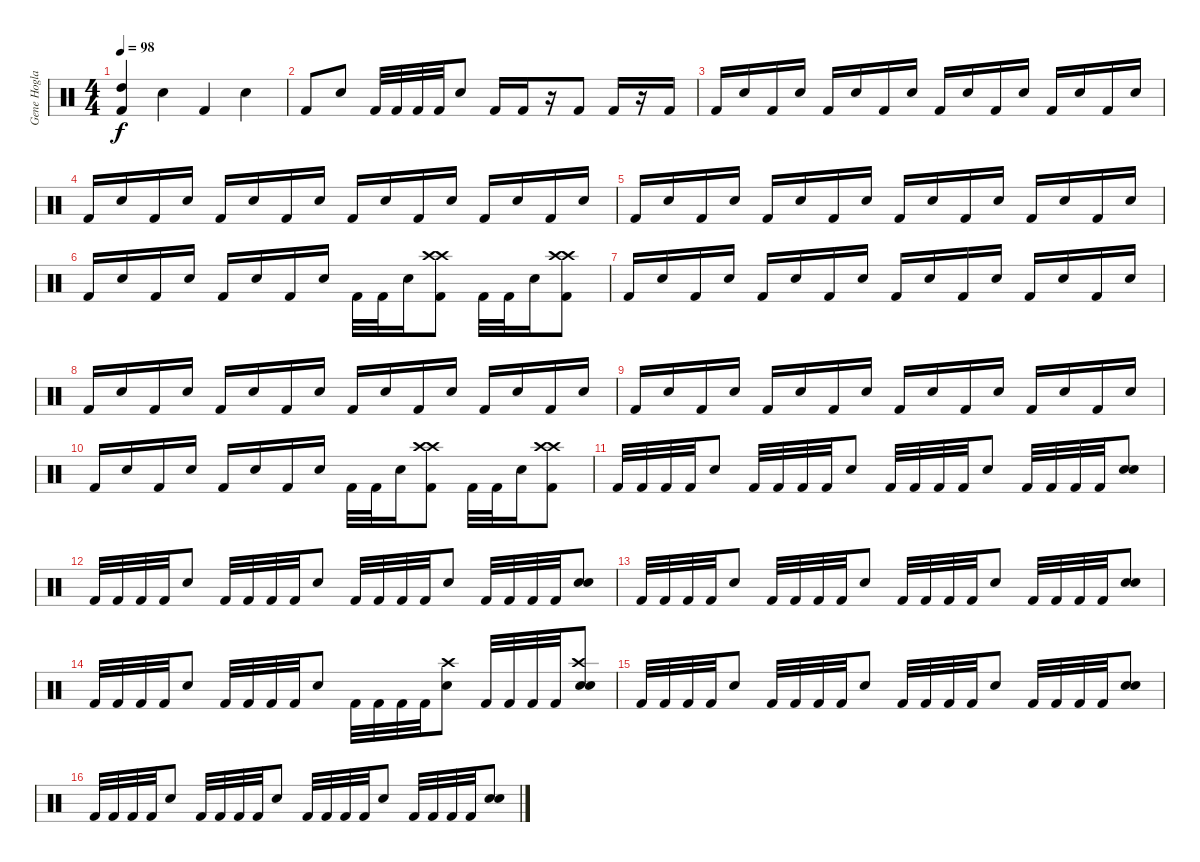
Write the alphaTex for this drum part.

\track ("Gene Hoglan" "Gene Hogla") {instrument percussion}
\staff {score}
\articulation defaults
\ts (4 4)
\tempo 98
\clef neutral
\ks c
("High Tom (hit)" "Kick (hit) 2").4{dy f} "Electric Snare (hit)".4 "Kick (hit) 2".4 "Electric Snare (hit)".4 |
"Kick (hit) 2".8 "Electric Snare (hit)".8 "Kick (hit) 2".32 "Kick (hit) 2".32 "Kick (hit) 2".32 "Kick (hit) 2".32 "Electric Snare (hit)".8 "Kick (hit) 2".16 "Kick (hit) 2".16 r.16 "Kick (hit) 2".8 "Kick (hit) 2".16 r.16 "Kick (hit) 2".16 |
"Kick (hit) 2".16 "Electric Snare (hit)".16 "Kick (hit) 2".16 "Electric Snare (hit)".16 "Kick (hit) 2".16 "Electric Snare (hit)".16 "Kick (hit) 2".16 "Electric Snare (hit)".16 "Kick (hit) 2".16 "Electric Snare (hit)".16 "Kick (hit) 2".16 "Electric Snare (hit)".16 "Kick (hit) 2".16 "Electric Snare (hit)".16 "Kick (hit) 2".16 "Electric Snare (hit)".16 |
"Kick (hit) 2".16 "Electric Snare (hit)".16 "Kick (hit) 2".16 "Electric Snare (hit)".16 "Kick (hit) 2".16 "Electric Snare (hit)".16 "Kick (hit) 2".16 "Electric Snare (hit)".16 "Kick (hit) 2".16 "Electric Snare (hit)".16 "Kick (hit) 2".16 "Electric Snare (hit)".16 "Kick (hit) 2".16 "Electric Snare (hit)".16 "Kick (hit) 2".16 "Electric Snare (hit)".16 |
"Kick (hit) 2".16 "Electric Snare (hit)".16 "Kick (hit) 2".16 "Electric Snare (hit)".16 "Kick (hit) 2".16 "Electric Snare (hit)".16 "Kick (hit) 2".16 "Electric Snare (hit)".16 "Kick (hit) 2".16 "Electric Snare (hit)".16 "Kick (hit) 2".16 "Electric Snare (hit)".16 "Kick (hit) 2".16 "Electric Snare (hit)".16 "Kick (hit) 2".16 "Electric Snare (hit)".16 |
"Kick (hit) 2".16 "Electric Snare (hit)".16 "Kick (hit) 2".16 "Electric Snare (hit)".16 "Kick (hit) 2".16 "Electric Snare (hit)".16 "Kick (hit) 2".16 "Electric Snare (hit)".16 "Kick (hit) 2".32 "Kick (hit) 2".32 "Electric Snare (hit)".16 ("Kick (hit) 2" "Crash high (hit)" "Crash high (hit)").8 "Kick (hit) 2".32 "Kick (hit) 2".32 "Electric Snare (hit)".16 ("Kick (hit) 2" "Crash high (hit)" "Crash high (hit)").8 |
"Kick (hit) 2".16 "Electric Snare (hit)".16 "Kick (hit) 2".16 "Electric Snare (hit)".16 "Kick (hit) 2".16 "Electric Snare (hit)".16 "Kick (hit) 2".16 "Electric Snare (hit)".16 "Kick (hit) 2".16 "Electric Snare (hit)".16 "Kick (hit) 2".16 "Electric Snare (hit)".16 "Kick (hit) 2".16 "Electric Snare (hit)".16 "Kick (hit) 2".16 "Electric Snare (hit)".16 |
"Kick (hit) 2".16 "Electric Snare (hit)".16 "Kick (hit) 2".16 "Electric Snare (hit)".16 "Kick (hit) 2".16 "Electric Snare (hit)".16 "Kick (hit) 2".16 "Electric Snare (hit)".16 "Kick (hit) 2".16 "Electric Snare (hit)".16 "Kick (hit) 2".16 "Electric Snare (hit)".16 "Kick (hit) 2".16 "Electric Snare (hit)".16 "Kick (hit) 2".16 "Electric Snare (hit)".16 |
"Kick (hit) 2".16 "Electric Snare (hit)".16 "Kick (hit) 2".16 "Electric Snare (hit)".16 "Kick (hit) 2".16 "Electric Snare (hit)".16 "Kick (hit) 2".16 "Electric Snare (hit)".16 "Kick (hit) 2".16 "Electric Snare (hit)".16 "Kick (hit) 2".16 "Electric Snare (hit)".16 "Kick (hit) 2".16 "Electric Snare (hit)".16 "Kick (hit) 2".16 "Electric Snare (hit)".16 |
"Kick (hit) 2".16 "Electric Snare (hit)".16 "Kick (hit) 2".16 "Electric Snare (hit)".16 "Kick (hit) 2".16 "Electric Snare (hit)".16 "Kick (hit) 2".16 "Electric Snare (hit)".16 "Kick (hit) 2".32 "Kick (hit) 2".32 "Electric Snare (hit)".16 ("Kick (hit) 2" "Crash high (hit)" "Crash high (hit)").8 "Kick (hit) 2".32 "Kick (hit) 2".32 "Electric Snare (hit)".16 ("Kick (hit) 2" "Crash high (hit)" "Crash high (hit)").8 |
"Kick (hit) 2".32 "Kick (hit) 2".32 "Kick (hit) 2".32 "Kick (hit) 2".32 "Electric Snare (hit)".8 "Kick (hit) 2".32 "Kick (hit) 2".32 "Kick (hit) 2".32 "Kick (hit) 2".32 "Electric Snare (hit)".8 "Kick (hit) 2".32 "Kick (hit) 2".32 "Kick (hit) 2".32 "Kick (hit) 2".32 "Electric Snare (hit)".8 "Kick (hit) 2".32 "Kick (hit) 2".32 "Kick (hit) 2".32 "Kick (hit) 2".32 ("Electric Snare (hit)" "Snare (hit)").8 |
"Kick (hit) 2".32 "Kick (hit) 2".32 "Kick (hit) 2".32 "Kick (hit) 2".32 "Electric Snare (hit)".8 "Kick (hit) 2".32 "Kick (hit) 2".32 "Kick (hit) 2".32 "Kick (hit) 2".32 "Electric Snare (hit)".8 "Kick (hit) 2".32 "Kick (hit) 2".32 "Kick (hit) 2".32 "Kick (hit) 2".32 "Electric Snare (hit)".8 "Kick (hit) 2".32 "Kick (hit) 2".32 "Kick (hit) 2".32 "Kick (hit) 2".32 ("Electric Snare (hit)" "Snare (hit)").8 |
"Kick (hit) 2".32 "Kick (hit) 2".32 "Kick (hit) 2".32 "Kick (hit) 2".32 "Electric Snare (hit)".8 "Kick (hit) 2".32 "Kick (hit) 2".32 "Kick (hit) 2".32 "Kick (hit) 2".32 "Electric Snare (hit)".8 "Kick (hit) 2".32 "Kick (hit) 2".32 "Kick (hit) 2".32 "Kick (hit) 2".32 "Electric Snare (hit)".8 "Kick (hit) 2".32 "Kick (hit) 2".32 "Kick (hit) 2".32 "Kick (hit) 2".32 ("Electric Snare (hit)" "Snare (hit)").8 |
"Kick (hit) 2".32 "Kick (hit) 2".32 "Kick (hit) 2".32 "Kick (hit) 2".32 "Electric Snare (hit)".8 "Kick (hit) 2".32 "Kick (hit) 2".32 "Kick (hit) 2".32 "Kick (hit) 2".32 "Electric Snare (hit)".8 "Kick (hit) 2".32 "Kick (hit) 2".32 "Kick (hit) 2".32 "Kick (hit) 2".32 ("Crash high (hit)" "Electric Snare (hit)").8 "Kick (hit) 2".32 "Kick (hit) 2".32 "Kick (hit) 2".32 "Kick (hit) 2".32 ("Crash high (hit)" "Electric Snare (hit)" "Snare (hit)").8 |
"Kick (hit) 2".32 "Kick (hit) 2".32 "Kick (hit) 2".32 "Kick (hit) 2".32 "Electric Snare (hit)".8 "Kick (hit) 2".32 "Kick (hit) 2".32 "Kick (hit) 2".32 "Kick (hit) 2".32 "Electric Snare (hit)".8 "Kick (hit) 2".32 "Kick (hit) 2".32 "Kick (hit) 2".32 "Kick (hit) 2".32 "Electric Snare (hit)".8 "Kick (hit) 2".32 "Kick (hit) 2".32 "Kick (hit) 2".32 "Kick (hit) 2".32 ("Electric Snare (hit)" "Snare (hit)").8 |
"Kick (hit) 2".32 "Kick (hit) 2".32 "Kick (hit) 2".32 "Kick (hit) 2".32 "Electric Snare (hit)".8 "Kick (hit) 2".32 "Kick (hit) 2".32 "Kick (hit) 2".32 "Kick (hit) 2".32 "Electric Snare (hit)".8 "Kick (hit) 2".32 "Kick (hit) 2".32 "Kick (hit) 2".32 "Kick (hit) 2".32 "Electric Snare (hit)".8 "Kick (hit) 2".32 "Kick (hit) 2".32 "Kick (hit) 2".32 "Kick (hit) 2".32 ("Electric Snare (hit)" "Snare (hit)").8
